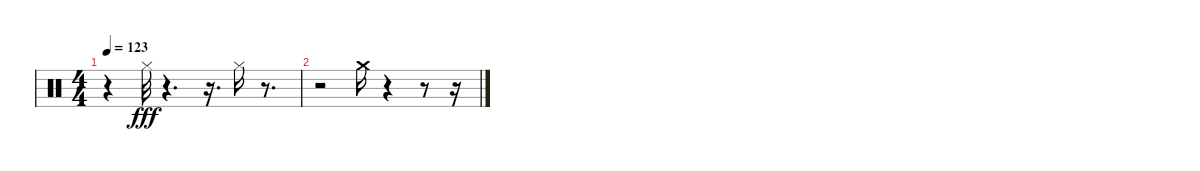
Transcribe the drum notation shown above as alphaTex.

\track "" {instrument percussion}
\staff {score}
\articulation defaults
\ts (4 4)
\tempo 123
\clef neutral
\ks c
r.4{dy fff} "Hi-Hat (closed)".32 r.4{d} r.16{d} "Hi-Hat (closed)".16 r.8{d} |
r.2 "Crash medium (hit)".16 r.4 r.8 r.16
